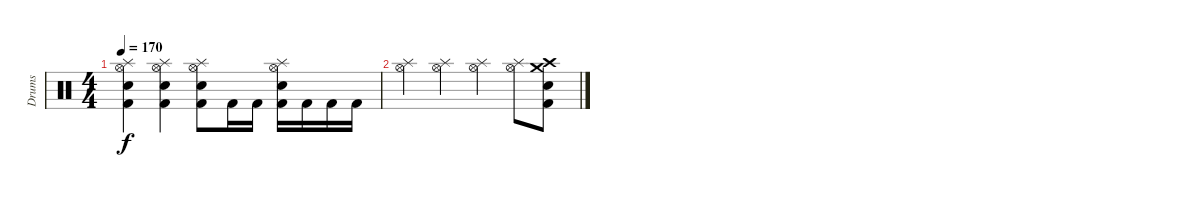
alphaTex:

\track ("Drums" "Drums") {instrument percussion}
\staff {score}
\articulation defaults
\ts (4 4)
\tempo 170
\clef neutral
\ks c
("Hi-Hat (open)" "Splash (hit)" "Snare (hit) 2" "Kick (hit) 2").4{dy f} ("Hi-Hat (open)" "Splash (hit)" "Snare (hit) 2" "Kick (hit) 2").4 ("Hi-Hat (open)" "Splash (hit)" "Snare (hit) 2" "Kick (hit) 2").8 "Kick (hit) 2".16 "Kick (hit) 2".16 ("Hi-Hat (open)" "Splash (hit)" "Snare (hit) 2" "Kick (hit) 2").16 "Kick (hit) 2".16 "Kick (hit) 2".16 "Kick (hit) 2".16 |
("Hi-Hat (open)" "Splash (hit)").4 ("Hi-Hat (open)" "Splash (hit)").4 ("Hi-Hat (open)" "Splash (hit)").4 ("Hi-Hat (open)" "Splash (hit)").8 ("Kick (hit) 2" "Electric Snare (hit)" "Crash high (hit)" "Crash medium (hit)").8
